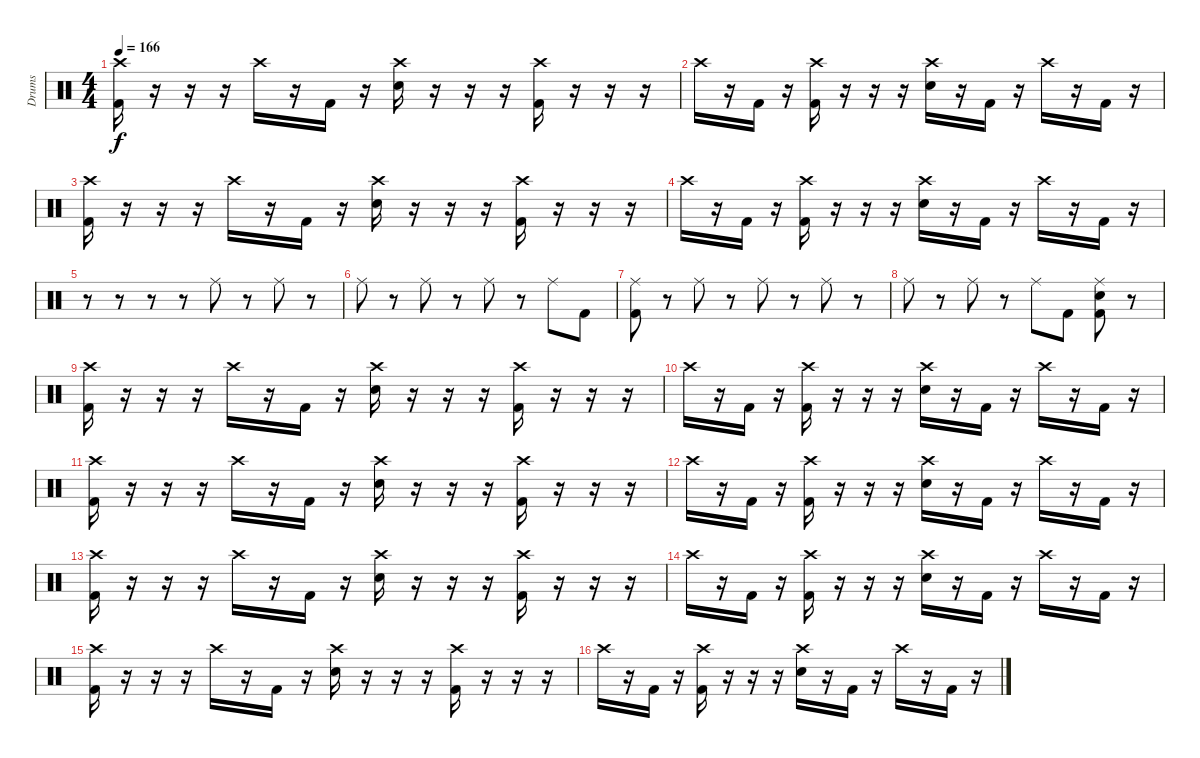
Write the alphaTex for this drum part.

\track ("Drums" "Drums") {instrument percussion}
\staff {score}
\articulation defaults
\ts (4 4)
\tempo 166
\clef neutral
\ks c
("Crash high (hit)" "Kick (hit) 2").16{dy f} r.16 r.16 r.16 "Crash high (hit)".16 r.16 "Kick (hit) 2".16 r.16 ("Crash high (hit)" "Electric Snare (hit)").16 r.16 r.16 r.16 ("Crash high (hit)" "Kick (hit) 2").16 r.16 r.16 r.16 |
"Crash high (hit)".16 r.16 "Kick (hit) 2".16 r.16 ("Crash high (hit)" "Kick (hit) 2").16 r.16 r.16 r.16 ("Crash high (hit)" "Electric Snare (hit)").16 r.16 "Kick (hit) 2".16 r.16 "Crash high (hit)".16 r.16 "Kick (hit) 2".16 r.16 |
("Crash high (hit)" "Kick (hit) 2").16 r.16 r.16 r.16 "Crash high (hit)".16 r.16 "Kick (hit) 2".16 r.16 ("Crash high (hit)" "Electric Snare (hit)").16 r.16 r.16 r.16 ("Crash high (hit)" "Kick (hit) 2").16 r.16 r.16 r.16 |
"Crash high (hit)".16 r.16 "Kick (hit) 2".16 r.16 ("Crash high (hit)" "Kick (hit) 2").16 r.16 r.16 r.16 ("Crash high (hit)" "Electric Snare (hit)").16 r.16 "Kick (hit) 2".16 r.16 "Crash high (hit)".16 r.16 "Kick (hit) 2".16 r.16 |
r.8 r.8 r.8 r.8 "Ride (middle)".8 r.8 "Ride (middle)".8 r.8 |
"Ride (middle)".8 r.8 "Ride (middle)".8 r.8 "Ride (middle)".8 r.8 "Ride (middle)".8 "Kick (hit) 2".8 |
("Ride (middle)" "Kick (hit) 2").8 r.8 "Ride (middle)".8 r.8 "Ride (middle)".8 r.8 "Ride (middle)".8 r.8 |
"Ride (middle)".8 r.8 "Ride (middle)".8 r.8 "Ride (middle)".8 "Kick (hit) 2".8 ("Ride (middle)" "Electric Snare (hit)" "Kick (hit) 2").8 r.8 |
("Crash high (hit)" "Kick (hit) 2").16 r.16 r.16 r.16 "Crash high (hit)".16 r.16 "Kick (hit) 2".16 r.16 ("Crash high (hit)" "Electric Snare (hit)").16 r.16 r.16 r.16 ("Crash high (hit)" "Kick (hit) 2").16 r.16 r.16 r.16 |
"Crash high (hit)".16 r.16 "Kick (hit) 2".16 r.16 ("Crash high (hit)" "Kick (hit) 2").16 r.16 r.16 r.16 ("Crash high (hit)" "Electric Snare (hit)").16 r.16 "Kick (hit) 2".16 r.16 "Crash high (hit)".16 r.16 "Kick (hit) 2".16 r.16 |
("Crash high (hit)" "Kick (hit) 2").16 r.16 r.16 r.16 "Crash high (hit)".16 r.16 "Kick (hit) 2".16 r.16 ("Crash high (hit)" "Electric Snare (hit)").16 r.16 r.16 r.16 ("Crash high (hit)" "Kick (hit) 2").16 r.16 r.16 r.16 |
"Crash high (hit)".16 r.16 "Kick (hit) 2".16 r.16 ("Crash high (hit)" "Kick (hit) 2").16 r.16 r.16 r.16 ("Crash high (hit)" "Electric Snare (hit)").16 r.16 "Kick (hit) 2".16 r.16 "Crash high (hit)".16 r.16 "Kick (hit) 2".16 r.16 |
("Crash high (hit)" "Kick (hit) 2").16 r.16 r.16 r.16 "Crash high (hit)".16 r.16 "Kick (hit) 2".16 r.16 ("Crash high (hit)" "Electric Snare (hit)").16 r.16 r.16 r.16 ("Crash high (hit)" "Kick (hit) 2").16 r.16 r.16 r.16 |
"Crash high (hit)".16 r.16 "Kick (hit) 2".16 r.16 ("Crash high (hit)" "Kick (hit) 2").16 r.16 r.16 r.16 ("Crash high (hit)" "Electric Snare (hit)").16 r.16 "Kick (hit) 2".16 r.16 "Crash high (hit)".16 r.16 "Kick (hit) 2".16 r.16 |
("Crash high (hit)" "Kick (hit) 2").16 r.16 r.16 r.16 "Crash high (hit)".16 r.16 "Kick (hit) 2".16 r.16 ("Crash high (hit)" "Electric Snare (hit)").16 r.16 r.16 r.16 ("Crash high (hit)" "Kick (hit) 2").16 r.16 r.16 r.16 |
"Crash high (hit)".16 r.16 "Kick (hit) 2".16 r.16 ("Crash high (hit)" "Kick (hit) 2").16 r.16 r.16 r.16 ("Crash high (hit)" "Electric Snare (hit)").16 r.16 "Kick (hit) 2".16 r.16 "Crash high (hit)".16 r.16 "Kick (hit) 2".16 r.16
